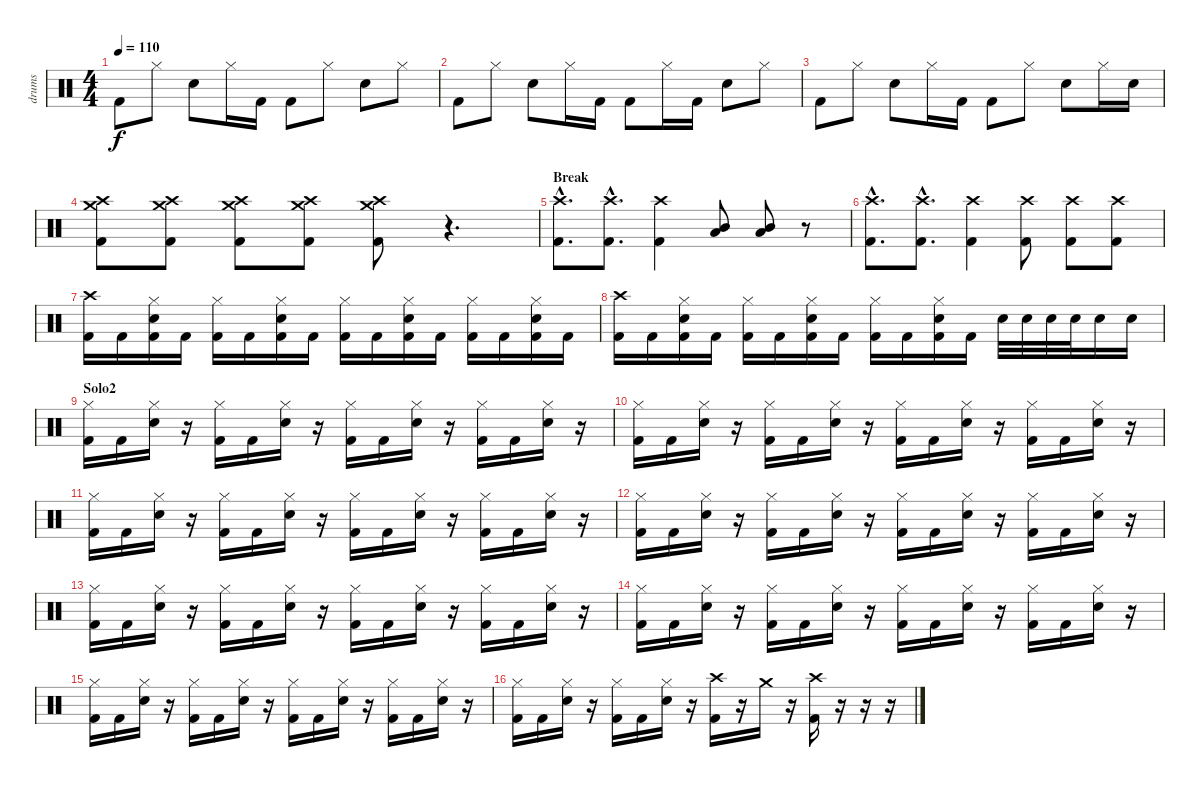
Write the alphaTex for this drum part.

\track ("drums" "drums") {instrument percussion}
\staff {score}
\articulation defaults
\ts (4 4)
\tempo 110
\clef neutral
\ks c "Kick (hit) 2".8{dy f} "Hi-Hat (closed)".8 "Snare (hit) 2".8 "Hi-Hat (closed)".16 "Kick (hit) 2".16 "Kick (hit) 2".8 "Hi-Hat (closed)".8 "Snare (hit) 2".8 "Hi-Hat (closed)".8
|
"Kick (hit) 2".8 "Hi-Hat (closed)".8 "Snare (hit) 2".8 "Hi-Hat (closed)".16 "Kick (hit) 2".16 "Kick (hit) 2".8 "Hi-Hat (closed)".16 "Kick (hit) 2".16 "Snare (hit) 2".8 "Hi-Hat (closed)".8 |
"Kick (hit) 2".8 "Hi-Hat (closed)".8 "Snare (hit) 2".8 "Hi-Hat (closed)".16 "Kick (hit) 2".16 "Kick (hit) 2".8 "Hi-Hat (closed)".8 "Snare (hit) 2".8 "Hi-Hat (closed)".16 "Snare (hit) 2".16 |
("Crash high (hit)" "Crash medium (hit)" "Kick (hit) 2").8 ("Crash high (hit)" "Crash medium (hit)" "Kick (hit) 2").8 ("Crash high (hit)" "Crash medium (hit)" "Kick (hit) 2").8 ("Crash high (hit)" "Crash medium (hit)" "Kick (hit) 2").8 ("Crash high (hit)" "Crash medium (hit)" "Kick (hit) 2").8 r.4{d} |
\section ("" "Break")
("Crash high (hit)"{hac} "Kick (hit) 2"{hac}).8{d} ("Crash high (hit)"{hac} "Kick (hit) 2"{hac}).8{d} ("Crash high (hit)" "Kick (hit) 2").4 ("Mid Tom (hit)" "Low Tom (hit)").8 ("Mid Tom (hit)" "Low Tom (hit)").8 r.8 |
("Crash high (hit)"{hac} "Kick (hit) 2"{hac}).8{d} ("Crash high (hit)"{hac} "Kick (hit) 2"{hac}).8{d} ("Crash high (hit)" "Kick (hit) 2").4 ("Crash high (hit)" "Kick (hit) 2").8 ("Crash high (hit)" "Kick (hit) 2").8 ("Crash high (hit)" "Kick (hit) 2").8 |
("Crash high (hit)" "Kick (hit) 2").16 "Kick (hit) 2".16 ("Hi-Hat (closed)" "Snare (hit) 2" "Kick (hit) 2").16 "Kick (hit) 2".16 ("Hi-Hat (closed)" "Kick (hit) 2").16 "Kick (hit) 2".16 ("Hi-Hat (closed)" "Snare (hit) 2" "Kick (hit) 2").16 "Kick (hit) 2".16 ("Hi-Hat (closed)" "Kick (hit) 2").16 "Kick (hit) 2".16 ("Hi-Hat (closed)" "Snare (hit) 2" "Kick (hit) 2").16 "Kick (hit) 2".16 ("Hi-Hat (closed)" "Kick (hit) 2").16 "Kick (hit) 2".16 ("Hi-Hat (closed)" "Snare (hit) 2" "Kick (hit) 2").16 "Kick (hit) 2".16 |
("Crash high (hit)" "Kick (hit) 2").16 "Kick (hit) 2".16 ("Hi-Hat (closed)" "Snare (hit) 2" "Kick (hit) 2").16 "Kick (hit) 2".16 ("Hi-Hat (closed)" "Kick (hit) 2").16 "Kick (hit) 2".16 ("Hi-Hat (closed)" "Snare (hit) 2" "Kick (hit) 2").16 "Kick (hit) 2".16 ("Hi-Hat (closed)" "Kick (hit) 2").16 "Kick (hit) 2".16 ("Hi-Hat (closed)" "Snare (hit) 2" "Kick (hit) 2").16 "Kick (hit) 2".16 "Snare (hit) 2".32 "Snare (hit) 2".32 "Snare (hit) 2".32 "Snare (hit) 2".32 "Snare (hit) 2".16 "Snare (hit) 2".16 |
\section ("" "Solo2")
("Hi-Hat (closed)" "Kick (hit) 2").16 "Kick (hit) 2".16 ("Hi-Hat (closed)" "Snare (hit) 2").16 r.16 ("Hi-Hat (closed)" "Kick (hit) 2").16 "Kick (hit) 2".16 ("Hi-Hat (closed)" "Snare (hit) 2").16 r.16 ("Hi-Hat (closed)" "Kick (hit) 2").16 "Kick (hit) 2".16 ("Hi-Hat (closed)" "Snare (hit) 2").16 r.16 ("Hi-Hat (closed)" "Kick (hit) 2").16 "Kick (hit) 2".16 ("Hi-Hat (closed)" "Snare (hit) 2").16 r.16 |
("Hi-Hat (closed)" "Kick (hit) 2").16 "Kick (hit) 2".16 ("Hi-Hat (closed)" "Snare (hit) 2").16 r.16 ("Hi-Hat (closed)" "Kick (hit) 2").16 "Kick (hit) 2".16 ("Hi-Hat (closed)" "Snare (hit) 2").16 r.16 ("Hi-Hat (closed)" "Kick (hit) 2").16 "Kick (hit) 2".16 ("Hi-Hat (closed)" "Snare (hit) 2").16 r.16 ("Hi-Hat (closed)" "Kick (hit) 2").16 "Kick (hit) 2".16 ("Hi-Hat (closed)" "Snare (hit) 2").16 r.16 |
("Hi-Hat (closed)" "Kick (hit) 2").16 "Kick (hit) 2".16 ("Hi-Hat (closed)" "Snare (hit) 2").16 r.16 ("Hi-Hat (closed)" "Kick (hit) 2").16 "Kick (hit) 2".16 ("Hi-Hat (closed)" "Snare (hit) 2").16 r.16 ("Hi-Hat (closed)" "Kick (hit) 2").16 "Kick (hit) 2".16 ("Hi-Hat (closed)" "Snare (hit) 2").16 r.16 ("Hi-Hat (closed)" "Kick (hit) 2").16 "Kick (hit) 2".16 ("Hi-Hat (closed)" "Snare (hit) 2").16 r.16 |
("Hi-Hat (closed)" "Kick (hit) 2").16 "Kick (hit) 2".16 ("Hi-Hat (closed)" "Snare (hit) 2").16 r.16 ("Hi-Hat (closed)" "Kick (hit) 2").16 "Kick (hit) 2".16 ("Hi-Hat (closed)" "Snare (hit) 2").16 r.16 ("Hi-Hat (closed)" "Kick (hit) 2").16 "Kick (hit) 2".16 ("Hi-Hat (closed)" "Snare (hit) 2").16 r.16 ("Hi-Hat (closed)" "Kick (hit) 2").16 "Kick (hit) 2".16 ("Hi-Hat (closed)" "Snare (hit) 2").16 r.16 |
("Hi-Hat (closed)" "Kick (hit) 2").16 "Kick (hit) 2".16 ("Hi-Hat (closed)" "Snare (hit) 2").16 r.16 ("Hi-Hat (closed)" "Kick (hit) 2").16 "Kick (hit) 2".16 ("Hi-Hat (closed)" "Snare (hit) 2").16 r.16 ("Hi-Hat (closed)" "Kick (hit) 2").16 "Kick (hit) 2".16 ("Hi-Hat (closed)" "Snare (hit) 2").16 r.16 ("Hi-Hat (closed)" "Kick (hit) 2").16 "Kick (hit) 2".16 ("Hi-Hat (closed)" "Snare (hit) 2").16 r.16 |
("Hi-Hat (closed)" "Kick (hit) 2").16 "Kick (hit) 2".16 ("Hi-Hat (closed)" "Snare (hit) 2").16 r.16 ("Hi-Hat (closed)" "Kick (hit) 2").16 "Kick (hit) 2".16 ("Hi-Hat (closed)" "Snare (hit) 2").16 r.16 ("Hi-Hat (closed)" "Kick (hit) 2").16 "Kick (hit) 2".16 ("Hi-Hat (closed)" "Snare (hit) 2").16 r.16 ("Hi-Hat (closed)" "Kick (hit) 2").16 "Kick (hit) 2".16 ("Hi-Hat (closed)" "Snare (hit) 2").16 r.16 |
("Hi-Hat (closed)" "Kick (hit) 2").16 "Kick (hit) 2".16 ("Hi-Hat (closed)" "Snare (hit) 2").16 r.16 ("Hi-Hat (closed)" "Kick (hit) 2").16 "Kick (hit) 2".16 ("Hi-Hat (closed)" "Snare (hit) 2").16 r.16 ("Hi-Hat (closed)" "Kick (hit) 2").16 "Kick (hit) 2".16 ("Hi-Hat (closed)" "Snare (hit) 2").16 r.16 ("Hi-Hat (closed)" "Kick (hit) 2").16 "Kick (hit) 2".16 ("Hi-Hat (closed)" "Snare (hit) 2").16 r.16 |
("Hi-Hat (closed)" "Kick (hit) 2").16 "Kick (hit) 2".16 ("Hi-Hat (closed)" "Snare (hit) 2").16 r.16 ("Hi-Hat (closed)" "Kick (hit) 2").16 "Kick (hit) 2".16 ("Hi-Hat (closed)" "Snare (hit) 2").16 r.16 ("Crash high (hit)" "Kick (hit) 2").16 r.16 "Crash medium (hit)".16 r.16 ("Crash high (hit)" "Kick (hit) 2").16 r.16 r.16 r.16
